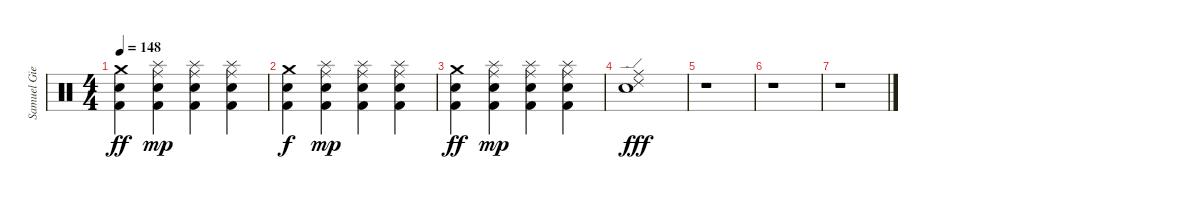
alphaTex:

\track ("Samuel Giers - Drum" "Samuel Gie") {instrument percussion}
\staff {score}
\articulation defaults
\ts (4 4)
\tempo 148
\clef neutral
\ks c
("Crash medium (hit)" "Snare (hit) 2" "Kick (hit) 2").4{dy ff} ("Ride (middle)" "Splash (hit)" "Snare (hit) 2" "Kick (hit) 2").4{dy mp} ("Ride (middle)" "Splash (hit)" "Snare (hit) 2" "Kick (hit) 2").4 ("Ride (middle)" "Splash (hit)" "Snare (hit) 2" "Kick (hit) 2").4 |
("Crash medium (hit)" "Snare (hit) 2" "Kick (hit) 2").4{dy f} ("Ride (middle)" "Splash (hit)" "Snare (hit) 2" "Kick (hit) 2").4{dy mp} ("Ride (middle)" "Splash (hit)" "Snare (hit) 2" "Kick (hit) 2").4 ("Ride (middle)" "Splash (hit)" "Snare (hit) 2" "Kick (hit) 2").4 |
("Crash medium (hit)" "Snare (hit) 2" "Kick (hit) 2").4{dy ff} ("Ride (middle)" "Splash (hit)" "Snare (hit) 2" "Kick (hit) 2").4{dy mp} ("Ride (middle)" "Splash (hit)" "Snare (hit) 2" "Kick (hit) 2").4 ("Ride (middle)" "Splash (hit)" "Snare (hit) 2" "Kick (hit) 2").4 |
("Ride (middle)" "Ride (edge) 2" "Snare (hit) 2").1{dy fff} |
r.1 |
r.1 |
r.1
